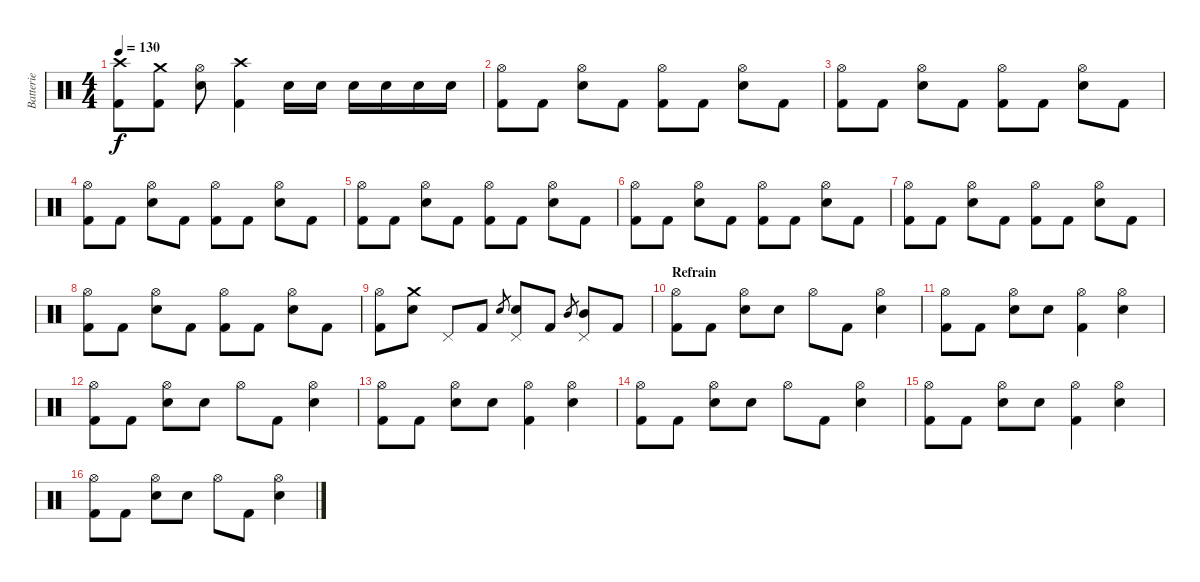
\track ("Batterie" "Batterie") {instrument percussion}
\staff {score}
\articulation defaults
\ts (4 4)
\tempo 130
\clef neutral
\ks c
("Crash high (hit)" "Kick (hit) 2").8{dy f} ("Crash medium (hit)" "Kick (hit) 2").8 ("Hi-Hat (open)" "Snare (hit) 2").8 ("Crash high (hit)" "Kick (hit) 2").4 "Snare (hit) 2".16 "Snare (hit) 2".16 "Snare (hit) 2".16 "Snare (hit) 2".16 "Snare (hit) 2".16 "Snare (hit) 2".16 |
("Hi-Hat (open)" "Kick (hit) 2").8 "Kick (hit) 2".8 ("Hi-Hat (open)" "Snare (hit) 2").8 "Kick (hit) 2".8 ("Hi-Hat (open)" "Kick (hit) 2").8 "Kick (hit) 2".8 ("Hi-Hat (open)" "Snare (hit) 2").8 "Kick (hit) 2".8 |
("Hi-Hat (open)" "Kick (hit) 2").8 "Kick (hit) 2".8 ("Hi-Hat (open)" "Snare (hit) 2").8 "Kick (hit) 2".8 ("Hi-Hat (open)" "Kick (hit) 2").8 "Kick (hit) 2".8 ("Hi-Hat (open)" "Snare (hit) 2").8 "Kick (hit) 2".8 |
("Hi-Hat (open)" "Kick (hit) 2").8 "Kick (hit) 2".8 ("Hi-Hat (open)" "Snare (hit) 2").8 "Kick (hit) 2".8 ("Hi-Hat (open)" "Kick (hit) 2").8 "Kick (hit) 2".8 ("Hi-Hat (open)" "Snare (hit) 2").8 "Kick (hit) 2".8 |
("Hi-Hat (open)" "Kick (hit) 2").8 "Kick (hit) 2".8 ("Hi-Hat (open)" "Snare (hit) 2").8 "Kick (hit) 2".8 ("Hi-Hat (open)" "Kick (hit) 2").8 "Kick (hit) 2".8 ("Hi-Hat (open)" "Snare (hit) 2").8 "Kick (hit) 2".8 |
("Hi-Hat (open)" "Kick (hit) 2").8 "Kick (hit) 2".8 ("Hi-Hat (open)" "Snare (hit) 2").8 "Kick (hit) 2".8 ("Hi-Hat (open)" "Kick (hit) 2").8 "Kick (hit) 2".8 ("Hi-Hat (open)" "Snare (hit) 2").8 "Kick (hit) 2".8 |
("Hi-Hat (open)" "Kick (hit) 2").8 "Kick (hit) 2".8 ("Hi-Hat (open)" "Snare (hit) 2").8 "Kick (hit) 2".8 ("Hi-Hat (open)" "Kick (hit) 2").8 "Kick (hit) 2".8 ("Hi-Hat (open)" "Snare (hit) 2").8 "Kick (hit) 2".8 |
("Hi-Hat (open)" "Kick (hit) 2").8 "Kick (hit) 2".8 ("Hi-Hat (open)" "Snare (hit) 2").8 "Kick (hit) 2".8 ("Hi-Hat (open)" "Kick (hit) 2").8 "Kick (hit) 2".8 ("Hi-Hat (open)" "Snare (hit) 2").8 "Kick (hit) 2".8 |
("Hi-Hat (open)" "Kick (hit) 2").8 ("Crash medium (hit)" "Snare (hit) 2").8 "Pedal Hi-Hat (hit)".8 "Kick (hit) 2".8 "Snare (hit) 2".8{gr} ("Pedal Hi-Hat (hit)" "Snare (hit) 2").8 "Kick (hit) 2".8 "Mid Tom (hit)".8{gr} ("Pedal Hi-Hat (hit)" "Mid Tom (hit)").8 "Kick (hit) 2".8 |
\section ("" "Refrain")
("Hi-Hat (open)" "Kick (hit) 2").8 "Kick (hit) 2".8 ("Hi-Hat (open)" "Snare (hit) 2").8 "Snare (hit) 2".8 "Hi-Hat (open)".8 "Kick (hit) 2".8 ("Hi-Hat (open)" "Snare (hit) 2").4 |
("Hi-Hat (open)" "Kick (hit) 2").8 "Kick (hit) 2".8 ("Hi-Hat (open)" "Snare (hit) 2").8 "Snare (hit) 2".8 ("Hi-Hat (open)" "Kick (hit) 2").4 ("Hi-Hat (open)" "Snare (hit) 2").4 |
("Hi-Hat (open)" "Kick (hit) 2").8 "Kick (hit) 2".8 ("Hi-Hat (open)" "Snare (hit) 2").8 "Snare (hit) 2".8 "Hi-Hat (open)".8 "Kick (hit) 2".8 ("Hi-Hat (open)" "Snare (hit) 2").4 |
("Hi-Hat (open)" "Kick (hit) 2").8 "Kick (hit) 2".8 ("Hi-Hat (open)" "Snare (hit) 2").8 "Snare (hit) 2".8 ("Hi-Hat (open)" "Kick (hit) 2").4 ("Hi-Hat (open)" "Snare (hit) 2").4 |
("Hi-Hat (open)" "Kick (hit) 2").8 "Kick (hit) 2".8 ("Hi-Hat (open)" "Snare (hit) 2").8 "Snare (hit) 2".8 "Hi-Hat (open)".8 "Kick (hit) 2".8 ("Hi-Hat (open)" "Snare (hit) 2").4 |
("Hi-Hat (open)" "Kick (hit) 2").8 "Kick (hit) 2".8 ("Hi-Hat (open)" "Snare (hit) 2").8 "Snare (hit) 2".8 ("Hi-Hat (open)" "Kick (hit) 2").4 ("Hi-Hat (open)" "Snare (hit) 2").4 |
("Hi-Hat (open)" "Kick (hit) 2").8 "Kick (hit) 2".8 ("Hi-Hat (open)" "Snare (hit) 2").8 "Snare (hit) 2".8 "Hi-Hat (open)".8 "Kick (hit) 2".8 ("Hi-Hat (open)" "Snare (hit) 2").4
